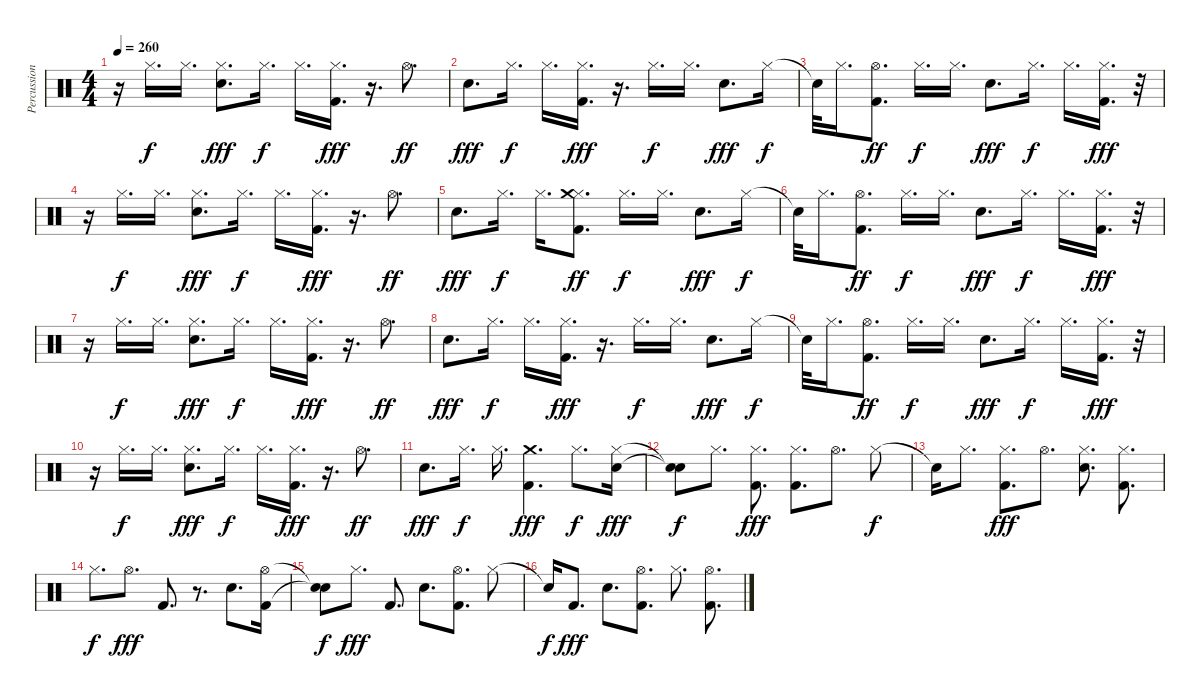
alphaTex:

\track ("Percussion" "Percussion") {instrument percussion}
\staff {score}
\articulation defaults
\ts (4 4)
\tempo 260
\clef neutral
\ks c
r.16{dy fff} "Hi-Hat (closed)".16{d dy f} "Hi-Hat (closed)".16{d} ("Hi-Hat (closed)" "Electric Snare (hit)").8{d dy fff} "Hi-Hat (closed)".16{d dy f} "Hi-Hat (closed)".16{d} ("Kick (hit) 2" "Hi-Hat (closed)").16{d dy fff} r.16{d} "Hi-Hat (open)".8{d dy ff} |
"Electric Snare (hit)".8{d dy fff} "Hi-Hat (closed)".16{d dy f} "Hi-Hat (closed)".16{d} ("Kick (hit) 2" "Hi-Hat (closed)").16{d dy fff} r.16{d} "Hi-Hat (closed)".16{d dy f} "Hi-Hat (closed)".16{d} "Electric Snare (hit)".8{d dy fff} "Hi-Hat (closed)".16{dy f} |
"Snare (hit)"{t}.32 "Hi-Hat (closed)".16{d} ("Kick (hit) 2" "Hi-Hat (open)").8{d dy ff} "Hi-Hat (closed)".16{d dy f} "Hi-Hat (closed)".16{d} "Electric Snare (hit)".8{d dy fff} "Hi-Hat (closed)".16{d dy f} "Hi-Hat (closed)".16{d} ("Kick (hit) 2" "Hi-Hat (closed)").16{d dy fff} r.32 |
r.16 "Hi-Hat (closed)".16{d dy f} "Hi-Hat (closed)".16{d} ("Hi-Hat (closed)" "Electric Snare (hit)").8{d dy fff} "Hi-Hat (closed)".16{d dy f} "Hi-Hat (closed)".16{d} ("Kick (hit) 2" "Hi-Hat (closed)").16{d dy fff} r.16{d} "Hi-Hat (open)".8{d dy ff} |
"Electric Snare (hit)".8{d dy fff} "Hi-Hat (closed)".16{d dy f} "Hi-Hat (closed)".16{d} ("Kick (hit) 2" "Hi-Hat (closed)" "Crash medium (hit)").8{d dy ff} "Hi-Hat (closed)".16{d dy f} "Hi-Hat (closed)".16{d} "Electric Snare (hit)".8{d dy fff} "Hi-Hat (closed)".16{dy f} |
"Snare (hit)"{t}.32 "Hi-Hat (closed)".16{d} ("Kick (hit) 2" "Hi-Hat (open)").8{d dy ff} "Hi-Hat (closed)".16{d dy f} "Hi-Hat (closed)".16{d} "Electric Snare (hit)".8{d dy fff} "Hi-Hat (closed)".16{d dy f} "Hi-Hat (closed)".16{d} ("Kick (hit) 2" "Hi-Hat (closed)").16{d dy fff} r.32 |
r.16 "Hi-Hat (closed)".16{d dy f} "Hi-Hat (closed)".16{d} ("Hi-Hat (closed)" "Electric Snare (hit)").8{d dy fff} "Hi-Hat (closed)".16{d dy f} "Hi-Hat (closed)".16{d} ("Kick (hit) 2" "Hi-Hat (closed)").16{d dy fff} r.16{d} "Hi-Hat (open)".8{d dy ff} |
"Electric Snare (hit)".8{d dy fff} "Hi-Hat (closed)".16{d dy f} "Hi-Hat (closed)".16{d} ("Kick (hit) 2" "Hi-Hat (closed)").16{d dy fff} r.16{d} "Hi-Hat (closed)".16{d dy f} "Hi-Hat (closed)".16{d} "Electric Snare (hit)".8{d dy fff} "Hi-Hat (closed)".16{dy f} |
"Snare (hit)"{t}.32 "Hi-Hat (closed)".16{d} ("Kick (hit) 2" "Hi-Hat (open)").8{d dy ff} "Hi-Hat (closed)".16{d dy f} "Hi-Hat (closed)".16{d} "Electric Snare (hit)".8{d dy fff} "Hi-Hat (closed)".16{d dy f} "Hi-Hat (closed)".16{d} ("Kick (hit) 2" "Hi-Hat (closed)").16{d dy fff} r.32 |
r.16 "Hi-Hat (closed)".16{d dy f} "Hi-Hat (closed)".16{d} ("Hi-Hat (closed)" "Electric Snare (hit)").8{d dy fff} "Hi-Hat (closed)".16{d dy f} "Hi-Hat (closed)".16{d} ("Kick (hit) 2" "Hi-Hat (closed)").16{d dy fff} r.16{d} "Hi-Hat (open)".8{d dy ff} |
"Electric Snare (hit)".8{d dy fff} "Hi-Hat (closed)".16{d dy f} "Hi-Hat (closed)".16{d} ("Kick (hit) 2" "Crash medium (hit)").4{d dy fff} "Hi-Hat (closed)".8{d dy f} ("Electric Snare (hit)" "Hi-Hat (closed)").16{dy fff} |
("Snare (hit)"{t} "Snare (hit)"{t}).8{dy f} "Hi-Hat (closed)".8{d} ("Kick (hit) 2" "Hi-Hat (closed)").8{d dy fff} ("Kick (hit) 2" "Hi-Hat (closed)").8{d} "Hi-Hat (open)".8{d} "Hi-Hat (closed)".8{dy f} |
"Snare (hit)"{t}.16 "Hi-Hat (closed)".8{d} ("Hi-Hat (closed)" "Kick (hit) 2").8{d dy fff} "Hi-Hat (open)".8{d} ("Hi-Hat (closed)" "Electric Snare (hit)").8{d} ("Hi-Hat (closed)" "Kick (hit) 2").8{d} |
"Hi-Hat (closed)".8{d dy f} "Hi-Hat (open)".8{d dy fff} "Kick (hit) 2".8{d} r.8{d} "Electric Snare (hit)".8{d} ("Kick (hit) 2" "Hi-Hat (open)").16 |
("Snare (hit)"{t} "Snare (hit)"{t}).8{dy f} "Hi-Hat (closed)".8{d dy fff} "Kick (hit) 2".8{d} "Electric Snare (hit)".8{d} ("Kick (hit) 2" "Hi-Hat (open)").8{d} "Hi-Hat (closed)".8 |
"Snare (hit)"{t}.16{dy f} "Kick (hit) 2".8{d dy fff} "Electric Snare (hit)".8{d} ("Kick (hit) 2" "Hi-Hat (open)").8{d} "Hi-Hat (closed)".8{d} ("Hi-Hat (open)" "Kick (hit) 2").8{d}
